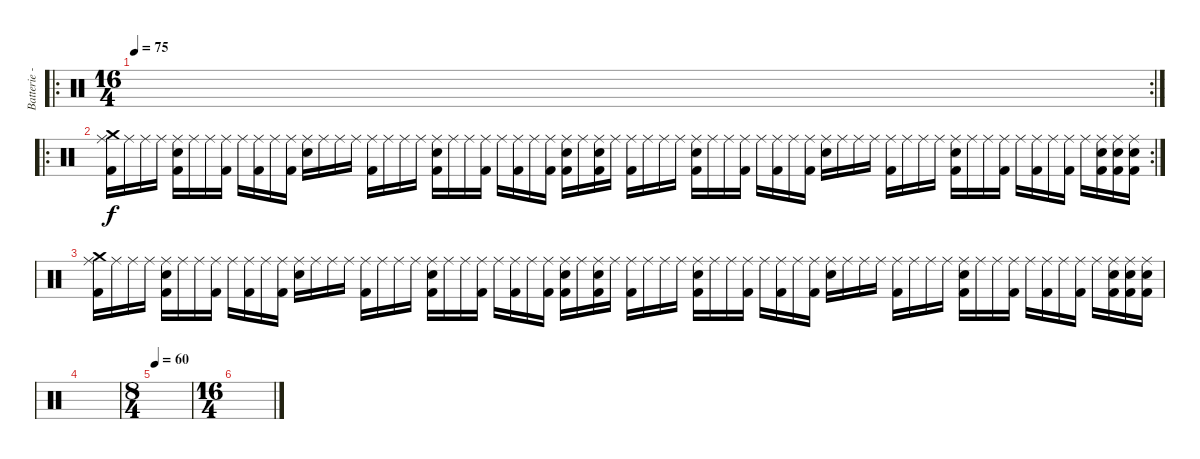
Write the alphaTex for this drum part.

\track ("Batterie - " "Batterie -") {instrument percussion}
\staff {score}
\articulation defaults
\ro
\rc 2
\ts (16 4)
\tempo 75
\clef neutral
\ks c
|
\ro
\rc 2
("Crash medium (hit)" "Kick (hit) 2" "Ride (middle)").16 "Ride (middle)".16 "Ride (middle)".16 "Ride (middle)".16 ("Kick (hit) 2" "Snare (hit) 2" "Ride (middle)").16 "Ride (middle)".16 "Ride (middle)".16 ("Kick (hit) 2" "Ride (middle)").16 "Ride (middle)".16 ("Kick (hit) 2" "Ride (middle)").16 "Ride (middle)".16 ("Kick (hit) 2" "Ride (middle)").16 ("Snare (hit) 2" "Ride (middle)").16 "Ride (middle)".16 "Ride (middle)".16 "Ride (middle)".16 ("Kick (hit) 2" "Ride (middle)").16 "Ride (middle)".16 "Ride (middle)".16 "Ride (middle)".16 ("Kick (hit) 2" "Snare (hit) 2" "Ride (middle)").16 "Ride (middle)".16 "Ride (middle)".16 ("Kick (hit) 2" "Ride (middle)").16 "Ride (middle)".16 ("Kick (hit) 2" "Ride (middle)").16 "Ride (middle)".16 ("Kick (hit) 2" "Ride (middle)").16 ("Kick (hit) 2" "Snare (hit) 2" "Ride (middle)").16 "Ride (middle)".16 ("Kick (hit) 2" "Snare (hit) 2" "Ride (middle)").16 "Ride (middle)".16 ("Kick (hit) 2" "Ride (middle)").16 "Ride (middle)".16 "Ride (middle)".16 "Ride (middle)".16 ("Snare (hit) 2" "Kick (hit) 2" "Ride (middle)").16 "Ride (middle)".16 "Ride (middle)".16 ("Kick (hit) 2" "Ride (middle)").16 "Ride (middle)".16 ("Kick (hit) 2" "Ride (middle)").16 "Ride (middle)".16 ("Kick (hit) 2" "Ride (middle)").16 ("Snare (hit) 2" "Ride (middle)").16 "Ride (middle)".16 "Ride (middle)".16 "Ride (middle)".16 ("Kick (hit) 2" "Ride (middle)").16 "Ride (middle)".16 "Ride (middle)".16 "Ride (middle)".16 ("Snare (hit) 2" "Kick (hit) 2" "Ride (middle)").16 "Ride (middle)".16 "Ride (middle)".16 ("Kick (hit) 2" "Ride (middle)").16 "Ride (middle)".16 ("Kick (hit) 2" "Ride (middle)").16 "Ride (middle)".16 ("Kick (hit) 2" "Ride (middle)").16 "Ride (middle)".16 ("Kick (hit) 2" "Snare (hit) 2" "Ride (middle)").16 ("Kick (hit) 2" "Snare (hit) 2" "Ride (middle)").16 ("Kick (hit) 2" "Snare (hit) 2" "Ride (middle)").16 |
("Crash medium (hit)" "Kick (hit) 2" "Ride (middle)").16 "Ride (middle)".16 "Ride (middle)".16 "Ride (middle)".16 ("Kick (hit) 2" "Snare (hit) 2" "Ride (middle)").16 "Ride (middle)".16 "Ride (middle)".16 ("Kick (hit) 2" "Ride (middle)").16 "Ride (middle)".16 ("Kick (hit) 2" "Ride (middle)").16 "Ride (middle)".16 ("Kick (hit) 2" "Ride (middle)").16 ("Snare (hit) 2" "Ride (middle)").16 "Ride (middle)".16 "Ride (middle)".16 "Ride (middle)".16 ("Kick (hit) 2" "Ride (middle)").16 "Ride (middle)".16 "Ride (middle)".16 "Ride (middle)".16 ("Kick (hit) 2" "Snare (hit) 2" "Ride (middle)").16 "Ride (middle)".16 "Ride (middle)".16 ("Kick (hit) 2" "Ride (middle)").16 "Ride (middle)".16 ("Kick (hit) 2" "Ride (middle)").16 "Ride (middle)".16 ("Kick (hit) 2" "Ride (middle)").16 ("Kick (hit) 2" "Snare (hit) 2" "Ride (middle)").16 "Ride (middle)".16 ("Kick (hit) 2" "Snare (hit) 2" "Ride (middle)").16 "Ride (middle)".16 ("Kick (hit) 2" "Ride (middle)").16 "Ride (middle)".16 "Ride (middle)".16 "Ride (middle)".16 ("Snare (hit) 2" "Kick (hit) 2" "Ride (middle)").16 "Ride (middle)".16 "Ride (middle)".16 ("Kick (hit) 2" "Ride (middle)").16 "Ride (middle)".16 ("Kick (hit) 2" "Ride (middle)").16 "Ride (middle)".16 ("Kick (hit) 2" "Ride (middle)").16 ("Snare (hit) 2" "Ride (middle)").16 "Ride (middle)".16 "Ride (middle)".16 "Ride (middle)".16 ("Kick (hit) 2" "Ride (middle)").16 "Ride (middle)".16 "Ride (middle)".16 "Ride (middle)".16 ("Snare (hit) 2" "Kick (hit) 2" "Ride (middle)").16 "Ride (middle)".16 "Ride (middle)".16 ("Kick (hit) 2" "Ride (middle)").16 "Ride (middle)".16 ("Kick (hit) 2" "Ride (middle)").16 "Ride (middle)".16 ("Kick (hit) 2" "Ride (middle)").16 "Ride (middle)".16 ("Kick (hit) 2" "Snare (hit) 2" "Ride (middle)").16 ("Kick (hit) 2" "Snare (hit) 2" "Ride (middle)").16 ("Kick (hit) 2" "Snare (hit) 2" "Ride (middle)").16 |
|
\ts (8 4)
\tempo 60
|
\ts (16 4)
